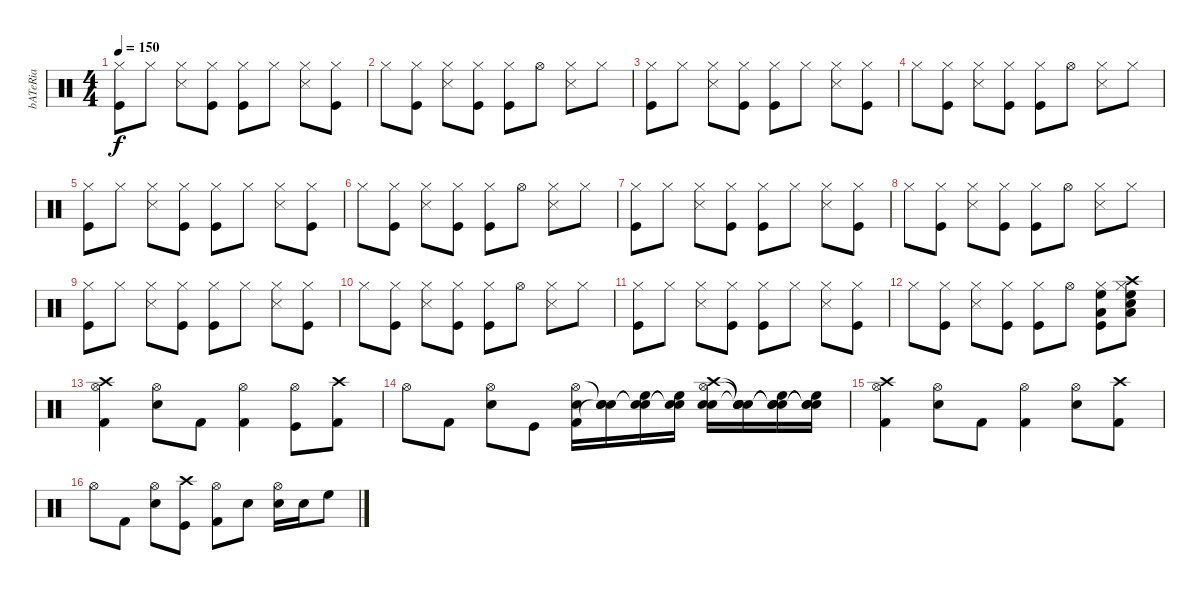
\track ("bATeRia" "bATeRia") {instrument percussion}
\staff {score}
\articulation defaults
\ts (4 4)
\tempo 150
\clef neutral
\ks c
("Hi-Hat (closed)" "Kick (hit)").8{dy f} "Hi-Hat (closed)".8 ("Hi-Hat (closed)" "Snare (side stick) 3").8 ("Hi-Hat (closed)" "Kick (hit)").8 ("Hi-Hat (closed)" "Kick (hit)").8 "Hi-Hat (closed)".8 ("Hi-Hat (closed)" "Snare (side stick) 3").8 ("Hi-Hat (closed)" "Kick (hit)").8 |
"Hi-Hat (closed)".8 ("Hi-Hat (closed)" "Kick (hit)").8 ("Hi-Hat (closed)" "Snare (side stick) 3").8 ("Hi-Hat (closed)" "Kick (hit)").8 ("Hi-Hat (closed)" "Kick (hit)").8 "Hi-Hat (open)".8 ("Hi-Hat (closed)" "Snare (side stick) 3").8 "Hi-Hat (closed)".8 |
("Hi-Hat (closed)" "Kick (hit)").8 "Hi-Hat (closed)".8 ("Hi-Hat (closed)" "Snare (side stick) 3").8 ("Hi-Hat (closed)" "Kick (hit)").8 ("Hi-Hat (closed)" "Kick (hit)").8 "Hi-Hat (closed)".8 ("Hi-Hat (closed)" "Snare (side stick) 3").8 ("Hi-Hat (closed)" "Kick (hit)").8 |
"Hi-Hat (closed)".8 ("Hi-Hat (closed)" "Kick (hit)").8 ("Hi-Hat (closed)" "Snare (side stick) 3").8 ("Hi-Hat (closed)" "Kick (hit)").8 ("Hi-Hat (closed)" "Kick (hit)").8 "Hi-Hat (open)".8 ("Hi-Hat (closed)" "Snare (side stick) 3").8 "Hi-Hat (closed)".8 |
("Hi-Hat (closed)" "Kick (hit)").8 "Hi-Hat (closed)".8 ("Hi-Hat (closed)" "Snare (side stick) 3").8 ("Hi-Hat (closed)" "Kick (hit)").8 ("Hi-Hat (closed)" "Kick (hit)").8 "Hi-Hat (closed)".8 ("Hi-Hat (closed)" "Snare (side stick) 3").8 ("Hi-Hat (closed)" "Kick (hit)").8 |
"Hi-Hat (closed)".8 ("Hi-Hat (closed)" "Kick (hit)").8 ("Hi-Hat (closed)" "Snare (side stick) 3").8 ("Hi-Hat (closed)" "Kick (hit)").8 ("Hi-Hat (closed)" "Kick (hit)").8 "Hi-Hat (open)".8 ("Hi-Hat (closed)" "Snare (side stick) 3").8 "Hi-Hat (closed)".8 |
("Hi-Hat (closed)" "Kick (hit)").8 "Hi-Hat (closed)".8 ("Hi-Hat (closed)" "Snare (side stick) 3").8 ("Hi-Hat (closed)" "Kick (hit)").8 ("Hi-Hat (closed)" "Kick (hit)").8 "Hi-Hat (closed)".8 ("Hi-Hat (closed)" "Snare (side stick) 3").8 ("Hi-Hat (closed)" "Kick (hit)").8 |
"Hi-Hat (closed)".8 ("Hi-Hat (closed)" "Kick (hit)").8 ("Hi-Hat (closed)" "Snare (side stick) 3").8 ("Hi-Hat (closed)" "Kick (hit)").8 ("Hi-Hat (closed)" "Kick (hit)").8 "Hi-Hat (open)".8 ("Hi-Hat (closed)" "Snare (side stick) 3").8 "Hi-Hat (closed)".8 |
("Hi-Hat (closed)" "Kick (hit)").8 "Hi-Hat (closed)".8 ("Hi-Hat (closed)" "Snare (side stick) 3").8 ("Hi-Hat (closed)" "Kick (hit)").8 ("Hi-Hat (closed)" "Kick (hit)").8 "Hi-Hat (closed)".8 ("Hi-Hat (closed)" "Snare (side stick) 3").8 ("Hi-Hat (closed)" "Kick (hit)").8 |
"Hi-Hat (closed)".8 ("Hi-Hat (closed)" "Kick (hit)").8 ("Hi-Hat (closed)" "Snare (side stick) 3").8 ("Hi-Hat (closed)" "Kick (hit)").8 ("Hi-Hat (closed)" "Kick (hit)").8 "Hi-Hat (open)".8 ("Hi-Hat (closed)" "Snare (side stick) 3").8 "Hi-Hat (closed)".8 |
("Hi-Hat (closed)" "Kick (hit)").8 "Hi-Hat (closed)".8 ("Hi-Hat (closed)" "Snare (side stick) 3").8 ("Hi-Hat (closed)" "Kick (hit)").8 ("Hi-Hat (closed)" "Kick (hit)").8 "Hi-Hat (closed)".8 ("Hi-Hat (closed)" "Snare (side stick) 3").8 ("Hi-Hat (closed)" "Kick (hit)").8 |
"Hi-Hat (closed)".8 ("Hi-Hat (closed)" "Kick (hit)").8 ("Hi-Hat (closed)" "Snare (side stick) 3").8 ("Hi-Hat (closed)" "Kick (hit)").8 ("Hi-Hat (closed)" "Kick (hit)").8 "Hi-Hat (open)".8 ("Hi-Hat (closed)" "Kick (hit)" "High Floor Tom (hit)" "Low Tom (hit)").8 ("Hi-Hat (closed)" "Snare (hit) 2" "Crash high (hit)" "High Floor Tom (hit)" "Low Tom (hit)").8 |
("Hi-Hat (open)" "Kick (hit) 2" "Crash high (hit)").4 ("Hi-Hat (open)" "Snare (hit) 2").8 "Kick (hit) 2".8 ("Hi-Hat (open)" "Kick (hit) 2").4 ("Hi-Hat (open)" "Kick (hit)").8 ("Kick (hit) 2" "Crash high (hit)").8 |
"Hi-Hat (open)".8 "Kick (hit) 2".8 ("Hi-Hat (open)" "Snare (hit) 2").8 "Kick (hit)".8 ("Hi-Hat (open)" "Kick (hit) 2" "Snare (hit) 2").16 ("Snare (hit)"{t} "Snare (hit)"{t} "Snare (hit) 2").16 ("Snare (hit)"{t} "Snare (hit)"{t} "High Floor Tom (hit)").16 ("Snare (hit)"{t} "Snare (hit)"{t} "High Floor Tom (hit)").16 ("Hi-Hat (open)" "Snare (hit) 2" "Crash high (hit)" "Snare (hit) 2").16 ("Snare (hit)"{t} "Snare (hit)"{t} "Snare (hit)"{t} "Snare (hit) 2").16 ("Snare (hit)"{t} "Snare (hit)"{t} "Snare (hit)"{t} "High Floor Tom (hit)").16 ("Snare (hit)"{t} "Snare (hit)"{t} "Snare (hit)"{t} "High Floor Tom (hit)").16 |
("Hi-Hat (open)" "Kick (hit) 2" "Crash high (hit)").4 ("Hi-Hat (open)" "Snare (hit) 2").8 "Kick (hit) 2".8 ("Hi-Hat (open)" "Kick (hit) 2").4 ("Hi-Hat (open)" "Snare (hit) 2").8 ("Kick (hit) 2" "Crash high (hit)").8 |
"Hi-Hat (open)".8 "Kick (hit) 2".8 ("Hi-Hat (open)" "Snare (hit) 2").8 ("Kick (hit)" "Crash high (hit)").8 ("Hi-Hat (open)" "Kick (hit) 2").8 "Snare (hit) 2".8 ("Hi-Hat (open)" "Snare (hit) 2").16 "Snare (hit) 2".16 "High Floor Tom (hit)".8
